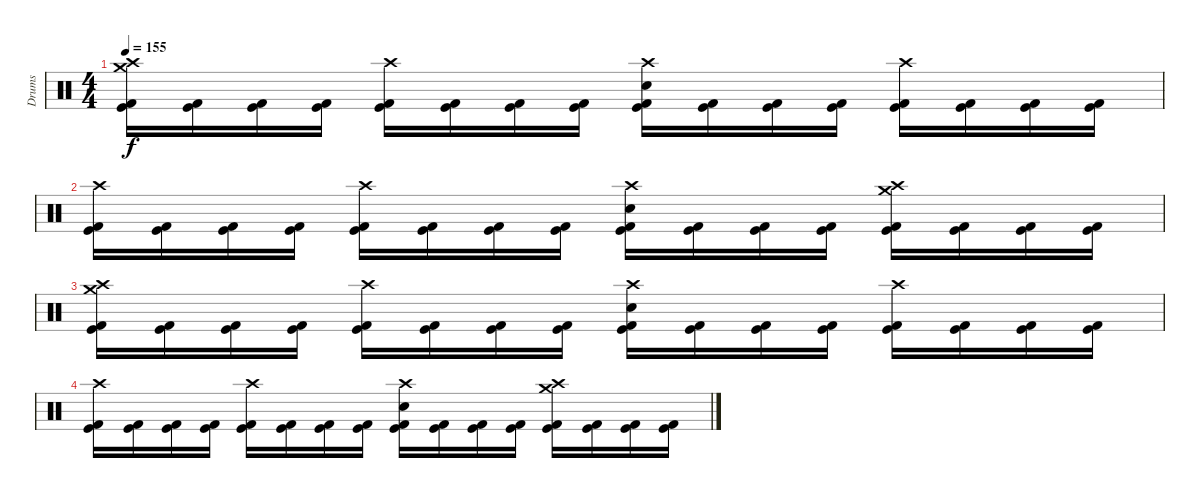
\track ("Drums" "Drums") {instrument percussion}
\staff {score}
\articulation defaults
\ts (4 4)
\tempo 155
\clef neutral
\ks c
("Crash medium (hit)" "Crash high (hit)" "Kick (hit)" "Kick (hit) 2").16{dy f} ("Kick (hit)" "Kick (hit) 2").16 ("Kick (hit)" "Kick (hit) 2").16 ("Kick (hit)" "Kick (hit) 2").16 ("Crash high (hit)" "Kick (hit)" "Kick (hit) 2").16 ("Kick (hit)" "Kick (hit) 2").16 ("Kick (hit)" "Kick (hit) 2").16 ("Kick (hit)" "Kick (hit) 2").16 ("Crash high (hit)" "Snare (hit) 2" "Kick (hit)" "Kick (hit) 2").16 ("Kick (hit)" "Kick (hit) 2").16 ("Kick (hit)" "Kick (hit) 2").16 ("Kick (hit)" "Kick (hit) 2").16 ("Crash high (hit)" "Kick (hit)" "Kick (hit) 2").16 ("Kick (hit)" "Kick (hit) 2").16 ("Kick (hit)" "Kick (hit) 2").16 ("Kick (hit)" "Kick (hit) 2").16 |
("Crash high (hit)" "Kick (hit)" "Kick (hit) 2").16 ("Kick (hit)" "Kick (hit) 2").16 ("Kick (hit)" "Kick (hit) 2").16 ("Kick (hit)" "Kick (hit) 2").16 ("Crash high (hit)" "Kick (hit)" "Kick (hit) 2").16 ("Kick (hit)" "Kick (hit) 2").16 ("Kick (hit)" "Kick (hit) 2").16 ("Kick (hit)" "Kick (hit) 2").16 ("Crash high (hit)" "Snare (hit) 2" "Kick (hit)" "Kick (hit) 2").16 ("Kick (hit)" "Kick (hit) 2").16 ("Kick (hit)" "Kick (hit) 2").16 ("Kick (hit)" "Kick (hit) 2").16 ("Crash medium (hit)" "Crash high (hit)" "Kick (hit)" "Kick (hit) 2").16 ("Kick (hit)" "Kick (hit) 2").16 ("Kick (hit)" "Kick (hit) 2").16 ("Kick (hit)" "Kick (hit) 2").16 |
("Crash medium (hit)" "Crash high (hit)" "Kick (hit)" "Kick (hit) 2").16 ("Kick (hit)" "Kick (hit) 2").16 ("Kick (hit)" "Kick (hit) 2").16 ("Kick (hit)" "Kick (hit) 2").16 ("Crash high (hit)" "Kick (hit)" "Kick (hit) 2").16 ("Kick (hit)" "Kick (hit) 2").16 ("Kick (hit)" "Kick (hit) 2").16 ("Kick (hit)" "Kick (hit) 2").16 ("Crash high (hit)" "Snare (hit) 2" "Kick (hit)" "Kick (hit) 2").16 ("Kick (hit)" "Kick (hit) 2").16 ("Kick (hit)" "Kick (hit) 2").16 ("Kick (hit)" "Kick (hit) 2").16 ("Crash high (hit)" "Kick (hit)" "Kick (hit) 2").16 ("Kick (hit)" "Kick (hit) 2").16 ("Kick (hit)" "Kick (hit) 2").16 ("Kick (hit)" "Kick (hit) 2").16 |
("Crash high (hit)" "Kick (hit)" "Kick (hit) 2").16 ("Kick (hit)" "Kick (hit) 2").16 ("Kick (hit)" "Kick (hit) 2").16 ("Kick (hit)" "Kick (hit) 2").16 ("Crash high (hit)" "Kick (hit)" "Kick (hit) 2").16 ("Kick (hit)" "Kick (hit) 2").16 ("Kick (hit)" "Kick (hit) 2").16 ("Kick (hit)" "Kick (hit) 2").16 ("Crash high (hit)" "Snare (hit) 2" "Kick (hit)" "Kick (hit) 2").16 ("Kick (hit)" "Kick (hit) 2").16 ("Kick (hit)" "Kick (hit) 2").16 ("Kick (hit)" "Kick (hit) 2").16 ("Crash medium (hit)" "Crash high (hit)" "Kick (hit)" "Kick (hit) 2").16 ("Kick (hit)" "Kick (hit) 2").16 ("Kick (hit)" "Kick (hit) 2").16 ("Kick (hit)" "Kick (hit) 2").16
